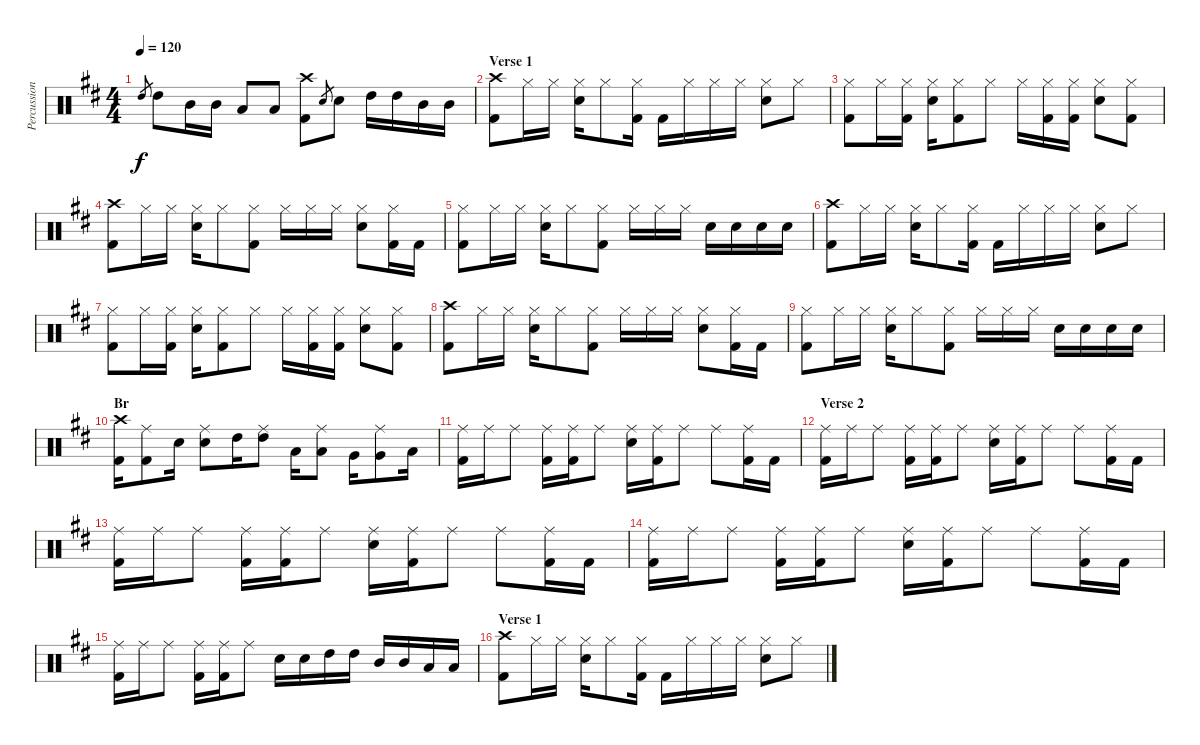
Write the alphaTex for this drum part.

\track ("Percussion" "Percussion") {instrument percussion}
\staff {score}
\articulation defaults
\ts (4 4)
\tempo 120
\clef neutral
\ks d "High Tom (hit)".8{gr dy f} "High Tom (hit)".8 "Mid Tom (hit)".16 "Mid Tom (hit)".16 "Low Tom (hit)".8 "Low Tom (hit)".8
("Crash high (hit)" "Kick (hit) 2").8 "Snare (hit) 2".8{gr} "Snare (hit) 2".8 "High Tom (hit)".16 "High Tom (hit)".16 "Mid Tom (hit)".16 "Mid Tom (hit)".16 |
\section ("" "Verse 1")
("Crash high (hit)" "Kick (hit) 2").8 "Hi-Hat (closed)".16 "Hi-Hat (closed)".16 ("Hi-Hat (closed)" "Snare (hit) 2").16 "Hi-Hat (closed)".8 ("Hi-Hat (closed)" "Kick (hit) 2").16 "Kick (hit) 2".16 "Hi-Hat (closed)".16 "Hi-Hat (closed)".16 "Hi-Hat (closed)".16 ("Hi-Hat (closed)" "Snare (hit) 2").8 "Hi-Hat (closed)".8 |
("Hi-Hat (closed)" "Kick (hit) 2").8 "Hi-Hat (closed)".16 ("Hi-Hat (closed)" "Kick (hit) 2").16 ("Hi-Hat (closed)" "Snare (hit) 2").16 ("Hi-Hat (closed)" "Kick (hit) 2").8 "Hi-Hat (closed)".8 "Hi-Hat (closed)".16 ("Hi-Hat (closed)" "Kick (hit) 2").16 ("Hi-Hat (closed)" "Kick (hit) 2").16 ("Hi-Hat (closed)" "Snare (hit) 2").8 ("Hi-Hat (closed)" "Kick (hit) 2").8 |
("Crash high (hit)" "Kick (hit) 2").8 "Hi-Hat (closed)".16 "Hi-Hat (closed)".16 ("Hi-Hat (closed)" "Snare (hit) 2").16 "Hi-Hat (closed)".8 ("Hi-Hat (closed)" "Kick (hit) 2").8 "Hi-Hat (closed)".16 "Hi-Hat (closed)".16 "Hi-Hat (closed)".16 ("Hi-Hat (closed)" "Snare (hit) 2").8 ("Hi-Hat (closed)" "Kick (hit) 2").16 "Kick (hit) 2".16 |
("Hi-Hat (closed)" "Kick (hit) 2").8 "Hi-Hat (closed)".16 "Hi-Hat (closed)".16 ("Hi-Hat (closed)" "Snare (hit) 2").16 "Hi-Hat (closed)".8 ("Hi-Hat (closed)" "Kick (hit) 2").8 "Hi-Hat (closed)".16 "Hi-Hat (closed)".16 "Hi-Hat (closed)".16 "Snare (hit) 2".16 "Snare (hit) 2".16 "Snare (hit) 2".16 "Snare (hit) 2".16 |
("Crash high (hit)" "Kick (hit) 2").8 "Hi-Hat (closed)".16 "Hi-Hat (closed)".16 ("Hi-Hat (closed)" "Snare (hit) 2").16 "Hi-Hat (closed)".8 ("Hi-Hat (closed)" "Kick (hit) 2").16 "Kick (hit) 2".16 "Hi-Hat (closed)".16 "Hi-Hat (closed)".16 "Hi-Hat (closed)".16 ("Hi-Hat (closed)" "Snare (hit) 2").8 "Hi-Hat (closed)".8 |
("Hi-Hat (closed)" "Kick (hit) 2").8 "Hi-Hat (closed)".16 ("Hi-Hat (closed)" "Kick (hit) 2").16 ("Hi-Hat (closed)" "Snare (hit) 2").16 ("Hi-Hat (closed)" "Kick (hit) 2").8 "Hi-Hat (closed)".8 "Hi-Hat (closed)".16 ("Hi-Hat (closed)" "Kick (hit) 2").16 ("Hi-Hat (closed)" "Kick (hit) 2").16 ("Hi-Hat (closed)" "Snare (hit) 2").8 ("Hi-Hat (closed)" "Kick (hit) 2").8 |
("Crash high (hit)" "Kick (hit) 2").8 "Hi-Hat (closed)".16 "Hi-Hat (closed)".16 ("Hi-Hat (closed)" "Snare (hit) 2").16 "Hi-Hat (closed)".8 ("Hi-Hat (closed)" "Kick (hit) 2").8 "Hi-Hat (closed)".16 "Hi-Hat (closed)".16 "Hi-Hat (closed)".16 ("Hi-Hat (closed)" "Snare (hit) 2").8 ("Hi-Hat (closed)" "Kick (hit) 2").16 "Kick (hit) 2".16 |
("Hi-Hat (closed)" "Kick (hit) 2").8 "Hi-Hat (closed)".16 "Hi-Hat (closed)".16 ("Hi-Hat (closed)" "Snare (hit) 2").16 "Hi-Hat (closed)".8 ("Hi-Hat (closed)" "Kick (hit) 2").8 "Hi-Hat (closed)".16 "Hi-Hat (closed)".16 "Hi-Hat (closed)".16 "Snare (hit) 2".16 "Snare (hit) 2".16 "Snare (hit) 2".16 "Snare (hit) 2".16 |
\section ("" "Br")
("Crash high (hit)" "Kick (hit) 2").16 ("Ride (middle)" "Kick (hit) 2").8 "Snare (hit) 2".16 ("Ride (middle)" "Snare (hit) 2").8 "High Tom (hit)".16 ("Ride (middle)" "High Tom (hit)").8 "Low Tom (hit)".16 ("Ride (middle)" "Low Tom (hit)").8 "Very Low Tom (hit)".16 ("Ride (middle)" "Very Low Tom (hit)").8 "Low Floor Tom (hit)".16 |
("Ride (middle)" "Kick (hit) 2").16 "Ride (middle)".16 "Ride (middle)".8 ("Ride (middle)" "Kick (hit) 2").16 ("Ride (middle)" "Kick (hit) 2").16 "Ride (middle)".8 ("Ride (middle)" "Snare (hit) 2").16 ("Ride (middle)" "Kick (hit) 2").16 "Ride (middle)".8 "Ride (middle)".8 ("Ride (middle)" "Kick (hit) 2").16 "Kick (hit) 2".16 |
\section ("" "Verse 2")
("Ride (middle)" "Kick (hit) 2").16 "Ride (middle)".16 "Ride (middle)".8 ("Ride (middle)" "Kick (hit) 2").16 ("Ride (middle)" "Kick (hit) 2").16 "Ride (middle)".8 ("Ride (middle)" "Snare (hit) 2").16 ("Ride (middle)" "Kick (hit) 2").16 "Ride (middle)".8 "Ride (middle)".8 ("Ride (middle)" "Kick (hit) 2").16 "Kick (hit) 2".16 |
("Ride (middle)" "Kick (hit) 2").16 "Ride (middle)".16 "Ride (middle)".8 ("Ride (middle)" "Kick (hit) 2").16 ("Ride (middle)" "Kick (hit) 2").16 "Ride (middle)".8 ("Ride (middle)" "Snare (hit) 2").16 ("Ride (middle)" "Kick (hit) 2").16 "Ride (middle)".8 "Ride (middle)".8 ("Ride (middle)" "Kick (hit) 2").16 "Kick (hit) 2".16 |
("Ride (middle)" "Kick (hit) 2").16 "Ride (middle)".16 "Ride (middle)".8 ("Ride (middle)" "Kick (hit) 2").16 ("Ride (middle)" "Kick (hit) 2").16 "Ride (middle)".8 ("Ride (middle)" "Snare (hit) 2").16 ("Ride (middle)" "Kick (hit) 2").16 "Ride (middle)".8 "Ride (middle)".8 ("Ride (middle)" "Kick (hit) 2").16 "Kick (hit) 2".16 |
("Ride (middle)" "Kick (hit) 2").16 "Ride (middle)".16 "Ride (middle)".8 ("Ride (middle)" "Kick (hit) 2").16 ("Ride (middle)" "Kick (hit) 2").16 "Ride (middle)".8 "Snare (hit) 2".16 "Snare (hit) 2".16 "High Tom (hit)".16 "High Tom (hit)".16 "Mid Tom (hit)".16 "Mid Tom (hit)".16 "Low Tom (hit)".16 "Low Tom (hit)".16 |
\section ("" "Verse 1")
("Crash high (hit)" "Kick (hit) 2").8 "Hi-Hat (closed)".16 "Hi-Hat (closed)".16 ("Hi-Hat (closed)" "Snare (hit) 2").16 "Hi-Hat (closed)".8 ("Hi-Hat (closed)" "Kick (hit) 2").16 "Kick (hit) 2".16 "Hi-Hat (closed)".16 "Hi-Hat (closed)".16 "Hi-Hat (closed)".16 ("Hi-Hat (closed)" "Snare (hit) 2").8 "Hi-Hat (closed)".8
